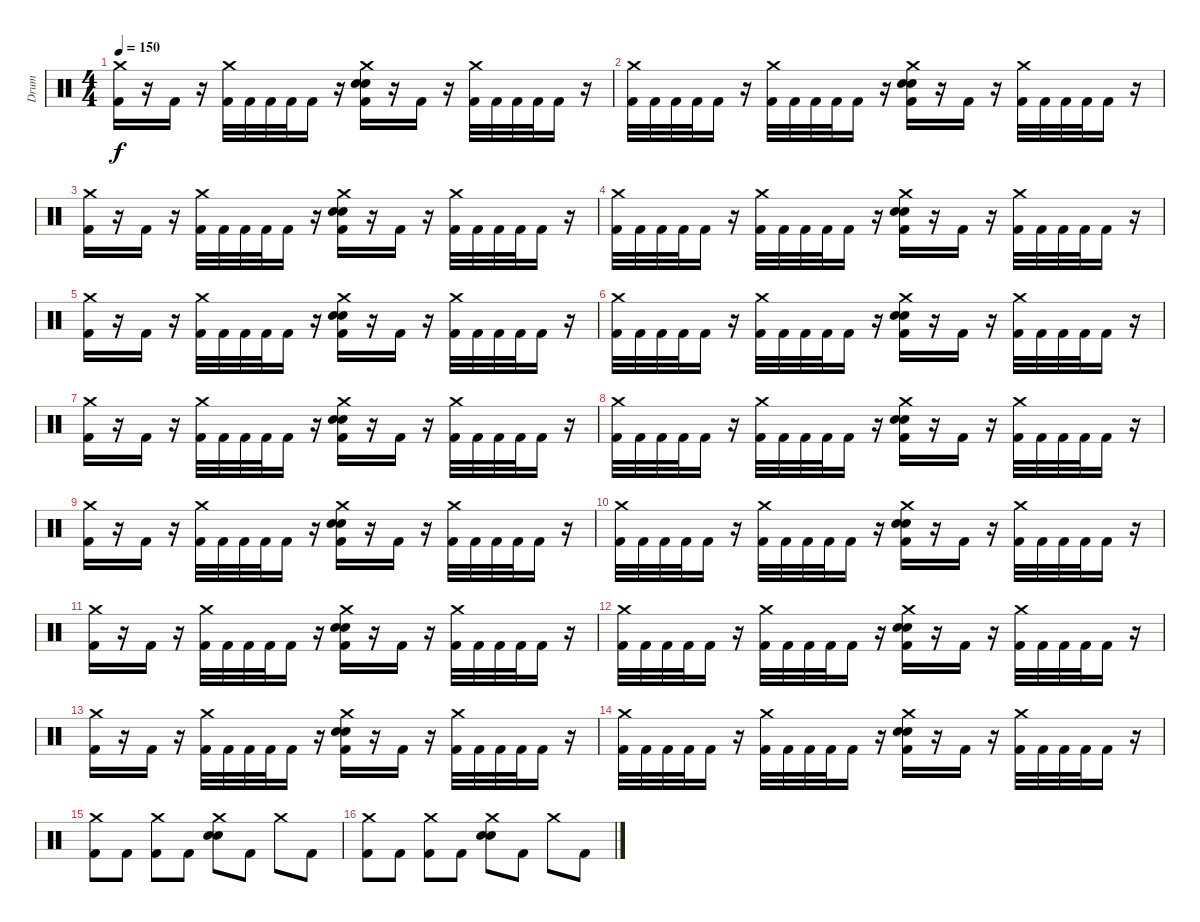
\track ("Drum" "Drum") {instrument percussion}
\staff {score}
\articulation defaults
\ts (4 4)
\tempo 150
\clef neutral
\ks c
("Crash medium (hit)" "Kick (hit) 2").16{dy f} r.16 "Kick (hit) 2".16 r.16 ("Crash medium (hit)" "Kick (hit) 2").32 "Kick (hit) 2".32 "Kick (hit) 2".32 "Kick (hit) 2".32 "Kick (hit) 2".16 r.16 ("Crash medium (hit)" "Snare (hit) 2" "Electric Snare (hit)" "Kick (hit) 2").16 r.16 "Kick (hit) 2".16 r.16 ("Crash medium (hit)" "Kick (hit) 2").32 "Kick (hit) 2".32 "Kick (hit) 2".32 "Kick (hit) 2".32 "Kick (hit) 2".16 r.16 |
("Crash medium (hit)" "Kick (hit) 2").32 "Kick (hit) 2".32 "Kick (hit) 2".32 "Kick (hit) 2".32 "Kick (hit) 2".16 r.16 ("Crash medium (hit)" "Kick (hit) 2").32 "Kick (hit) 2".32 "Kick (hit) 2".32 "Kick (hit) 2".32 "Kick (hit) 2".16 r.16 ("Crash medium (hit)" "Snare (hit) 2" "Electric Snare (hit)" "Kick (hit) 2").16 r.16 "Kick (hit) 2".16 r.16 ("Crash medium (hit)" "Kick (hit) 2").32 "Kick (hit) 2".32 "Kick (hit) 2".32 "Kick (hit) 2".32 "Kick (hit) 2".16 r.16 |
("Crash medium (hit)" "Kick (hit) 2").16 r.16 "Kick (hit) 2".16 r.16 ("Crash medium (hit)" "Kick (hit) 2").32 "Kick (hit) 2".32 "Kick (hit) 2".32 "Kick (hit) 2".32 "Kick (hit) 2".16 r.16 ("Crash medium (hit)" "Snare (hit) 2" "Electric Snare (hit)" "Kick (hit) 2").16 r.16 "Kick (hit) 2".16 r.16 ("Crash medium (hit)" "Kick (hit) 2").32 "Kick (hit) 2".32 "Kick (hit) 2".32 "Kick (hit) 2".32 "Kick (hit) 2".16 r.16 |
("Crash medium (hit)" "Kick (hit) 2").32 "Kick (hit) 2".32 "Kick (hit) 2".32 "Kick (hit) 2".32 "Kick (hit) 2".16 r.16 ("Crash medium (hit)" "Kick (hit) 2").32 "Kick (hit) 2".32 "Kick (hit) 2".32 "Kick (hit) 2".32 "Kick (hit) 2".16 r.16 ("Crash medium (hit)" "Snare (hit) 2" "Electric Snare (hit)" "Kick (hit) 2").16 r.16 "Kick (hit) 2".16 r.16 ("Crash medium (hit)" "Kick (hit) 2").32 "Kick (hit) 2".32 "Kick (hit) 2".32 "Kick (hit) 2".32 "Kick (hit) 2".16 r.16 |
("Crash medium (hit)" "Kick (hit) 2").16 r.16 "Kick (hit) 2".16 r.16 ("Crash medium (hit)" "Kick (hit) 2").32 "Kick (hit) 2".32 "Kick (hit) 2".32 "Kick (hit) 2".32 "Kick (hit) 2".16 r.16 ("Crash medium (hit)" "Snare (hit) 2" "Electric Snare (hit)" "Kick (hit) 2").16 r.16 "Kick (hit) 2".16 r.16 ("Crash medium (hit)" "Kick (hit) 2").32 "Kick (hit) 2".32 "Kick (hit) 2".32 "Kick (hit) 2".32 "Kick (hit) 2".16 r.16 |
("Crash medium (hit)" "Kick (hit) 2").32 "Kick (hit) 2".32 "Kick (hit) 2".32 "Kick (hit) 2".32 "Kick (hit) 2".16 r.16 ("Crash medium (hit)" "Kick (hit) 2").32 "Kick (hit) 2".32 "Kick (hit) 2".32 "Kick (hit) 2".32 "Kick (hit) 2".16 r.16 ("Crash medium (hit)" "Snare (hit) 2" "Electric Snare (hit)" "Kick (hit) 2").16 r.16 "Kick (hit) 2".16 r.16 ("Crash medium (hit)" "Kick (hit) 2").32 "Kick (hit) 2".32 "Kick (hit) 2".32 "Kick (hit) 2".32 "Kick (hit) 2".16 r.16 |
("Crash medium (hit)" "Kick (hit) 2").16 r.16 "Kick (hit) 2".16 r.16 ("Crash medium (hit)" "Kick (hit) 2").32 "Kick (hit) 2".32 "Kick (hit) 2".32 "Kick (hit) 2".32 "Kick (hit) 2".16 r.16 ("Crash medium (hit)" "Snare (hit) 2" "Electric Snare (hit)" "Kick (hit) 2").16 r.16 "Kick (hit) 2".16 r.16 ("Crash medium (hit)" "Kick (hit) 2").32 "Kick (hit) 2".32 "Kick (hit) 2".32 "Kick (hit) 2".32 "Kick (hit) 2".16 r.16 |
("Crash medium (hit)" "Kick (hit) 2").32 "Kick (hit) 2".32 "Kick (hit) 2".32 "Kick (hit) 2".32 "Kick (hit) 2".16 r.16 ("Crash medium (hit)" "Kick (hit) 2").32 "Kick (hit) 2".32 "Kick (hit) 2".32 "Kick (hit) 2".32 "Kick (hit) 2".16 r.16 ("Crash medium (hit)" "Snare (hit) 2" "Electric Snare (hit)" "Kick (hit) 2").16 r.16 "Kick (hit) 2".16 r.16 ("Crash medium (hit)" "Kick (hit) 2").32 "Kick (hit) 2".32 "Kick (hit) 2".32 "Kick (hit) 2".32 "Kick (hit) 2".16 r.16 |
("Crash medium (hit)" "Kick (hit) 2").16 r.16 "Kick (hit) 2".16 r.16 ("Crash medium (hit)" "Kick (hit) 2").32 "Kick (hit) 2".32 "Kick (hit) 2".32 "Kick (hit) 2".32 "Kick (hit) 2".16 r.16 ("Crash medium (hit)" "Snare (hit) 2" "Electric Snare (hit)" "Kick (hit) 2").16 r.16 "Kick (hit) 2".16 r.16 ("Crash medium (hit)" "Kick (hit) 2").32 "Kick (hit) 2".32 "Kick (hit) 2".32 "Kick (hit) 2".32 "Kick (hit) 2".16 r.16 |
("Crash medium (hit)" "Kick (hit) 2").32 "Kick (hit) 2".32 "Kick (hit) 2".32 "Kick (hit) 2".32 "Kick (hit) 2".16 r.16 ("Crash medium (hit)" "Kick (hit) 2").32 "Kick (hit) 2".32 "Kick (hit) 2".32 "Kick (hit) 2".32 "Kick (hit) 2".16 r.16 ("Crash medium (hit)" "Snare (hit) 2" "Electric Snare (hit)" "Kick (hit) 2").16 r.16 "Kick (hit) 2".16 r.16 ("Crash medium (hit)" "Kick (hit) 2").32 "Kick (hit) 2".32 "Kick (hit) 2".32 "Kick (hit) 2".32 "Kick (hit) 2".16 r.16 |
("Crash medium (hit)" "Kick (hit) 2").16 r.16 "Kick (hit) 2".16 r.16 ("Crash medium (hit)" "Kick (hit) 2").32 "Kick (hit) 2".32 "Kick (hit) 2".32 "Kick (hit) 2".32 "Kick (hit) 2".16 r.16 ("Crash medium (hit)" "Snare (hit) 2" "Electric Snare (hit)" "Kick (hit) 2").16 r.16 "Kick (hit) 2".16 r.16 ("Crash medium (hit)" "Kick (hit) 2").32 "Kick (hit) 2".32 "Kick (hit) 2".32 "Kick (hit) 2".32 "Kick (hit) 2".16 r.16 |
("Crash medium (hit)" "Kick (hit) 2").32 "Kick (hit) 2".32 "Kick (hit) 2".32 "Kick (hit) 2".32 "Kick (hit) 2".16 r.16 ("Crash medium (hit)" "Kick (hit) 2").32 "Kick (hit) 2".32 "Kick (hit) 2".32 "Kick (hit) 2".32 "Kick (hit) 2".16 r.16 ("Crash medium (hit)" "Snare (hit) 2" "Electric Snare (hit)" "Kick (hit) 2").16 r.16 "Kick (hit) 2".16 r.16 ("Crash medium (hit)" "Kick (hit) 2").32 "Kick (hit) 2".32 "Kick (hit) 2".32 "Kick (hit) 2".32 "Kick (hit) 2".16 r.16 |
("Crash medium (hit)" "Kick (hit) 2").16 r.16 "Kick (hit) 2".16 r.16 ("Crash medium (hit)" "Kick (hit) 2").32 "Kick (hit) 2".32 "Kick (hit) 2".32 "Kick (hit) 2".32 "Kick (hit) 2".16 r.16 ("Crash medium (hit)" "Snare (hit) 2" "Electric Snare (hit)" "Kick (hit) 2").16 r.16 "Kick (hit) 2".16 r.16 ("Crash medium (hit)" "Kick (hit) 2").32 "Kick (hit) 2".32 "Kick (hit) 2".32 "Kick (hit) 2".32 "Kick (hit) 2".16 r.16 |
("Crash medium (hit)" "Kick (hit) 2").32 "Kick (hit) 2".32 "Kick (hit) 2".32 "Kick (hit) 2".32 "Kick (hit) 2".16 r.16 ("Crash medium (hit)" "Kick (hit) 2").32 "Kick (hit) 2".32 "Kick (hit) 2".32 "Kick (hit) 2".32 "Kick (hit) 2".16 r.16 ("Crash medium (hit)" "Snare (hit) 2" "Electric Snare (hit)" "Kick (hit) 2").16 r.16 "Kick (hit) 2".16 r.16 ("Crash medium (hit)" "Kick (hit) 2").32 "Kick (hit) 2".32 "Kick (hit) 2".32 "Kick (hit) 2".32 "Kick (hit) 2".16 r.16 |
("Crash medium (hit)" "Kick (hit) 2").8 "Kick (hit) 2".8 ("Crash medium (hit)" "Kick (hit) 2").8 "Kick (hit) 2".8 ("Crash medium (hit)" "Snare (hit) 2" "Electric Snare (hit)").8 "Kick (hit) 2".8 "Crash medium (hit)".8 "Kick (hit) 2".8 |
("Crash medium (hit)" "Kick (hit) 2").8 "Kick (hit) 2".8 ("Crash medium (hit)" "Kick (hit) 2").8 "Kick (hit) 2".8 ("Crash medium (hit)" "Snare (hit) 2" "Electric Snare (hit)").8 "Kick (hit) 2".8 "Crash medium (hit)".8 "Kick (hit) 2".8
